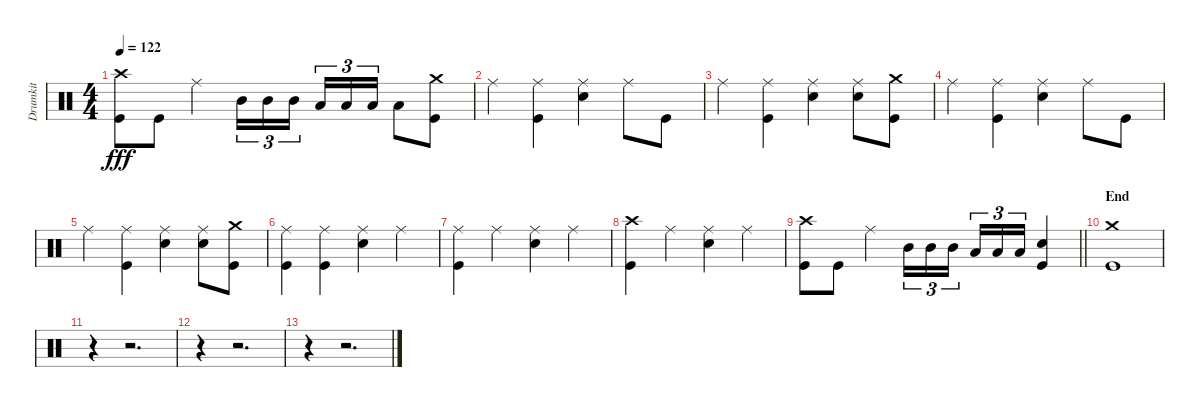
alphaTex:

\track ("Drumkit" "Drumkit") {mute instrument percussion}
\staff {score}
\articulation defaults
\ts (4 4)
\tempo 122
\clef neutral
\ks c
("Kick (hit)" "Crash high (hit)").8{dy fff} "Kick (hit)".8 "Ride (middle)".4 "Mid Tom (hit)".16{tu (3 2)} "Mid Tom (hit)".16{tu (3 2)} "Mid Tom (hit)".16{tu (3 2)} "Low Tom (hit)".16{tu (3 2)} "Low Tom (hit)".16{tu (3 2)} "Low Tom (hit)".16{tu (3 2)} "Low Tom (hit)".8 ("Crash medium (hit)" "Kick (hit)").8 |
"Ride (middle)".4 ("Ride (middle)" "Kick (hit)").4 ("Ride (middle)" "Snare (hit) 2").4 "Ride (middle)".8 "Kick (hit)".8 |
"Ride (middle)".4 ("Ride (middle)" "Kick (hit)").4 ("Ride (middle)" "Snare (hit) 2").4 ("Ride (middle)" "Snare (hit) 2").8 ("Kick (hit)" "Crash medium (hit)").8 |
"Ride (middle)".4 ("Ride (middle)" "Kick (hit)").4 ("Ride (middle)" "Snare (hit) 2").4 "Ride (middle)".8 "Kick (hit)".8 |
"Ride (middle)".4 ("Ride (middle)" "Kick (hit)").4 ("Ride (middle)" "Snare (hit) 2").4 ("Ride (middle)" "Snare (hit) 2").8 ("Kick (hit)" "Crash medium (hit)").8 |
("Ride (middle)" "Kick (hit)").4 ("Ride (middle)" "Kick (hit)").4 ("Ride (middle)" "Snare (hit) 2").4 "Ride (middle)".4 |
("Ride (middle)" "Kick (hit)").4 "Ride (middle)".4 ("Ride (middle)" "Snare (hit) 2").4 "Ride (middle)".4 |
("Kick (hit)" "Crash high (hit)").4 "Ride (middle)".4 ("Ride (middle)" "Snare (hit) 2").4 "Ride (middle)".4 |
\barLineRight lightlight
("Kick (hit)" "Crash high (hit)").8 "Kick (hit)".8 "Ride (middle)".4 "Mid Tom (hit)".16{tu (3 2)} "Mid Tom (hit)".16{tu (3 2)} "Mid Tom (hit)".16{tu (3 2)} "Low Tom (hit)".16{tu (3 2)} "Low Tom (hit)".16{tu (3 2)} "Low Tom (hit)".16{tu (3 2)} ("Snare (hit) 2" "Kick (hit)").4 |
\section ("" "End")
("Crash medium (hit)" "Kick (hit)").1 |
r.4 r.2{d} |
r.4 r.2{d} |
r.4 r.2{d}
